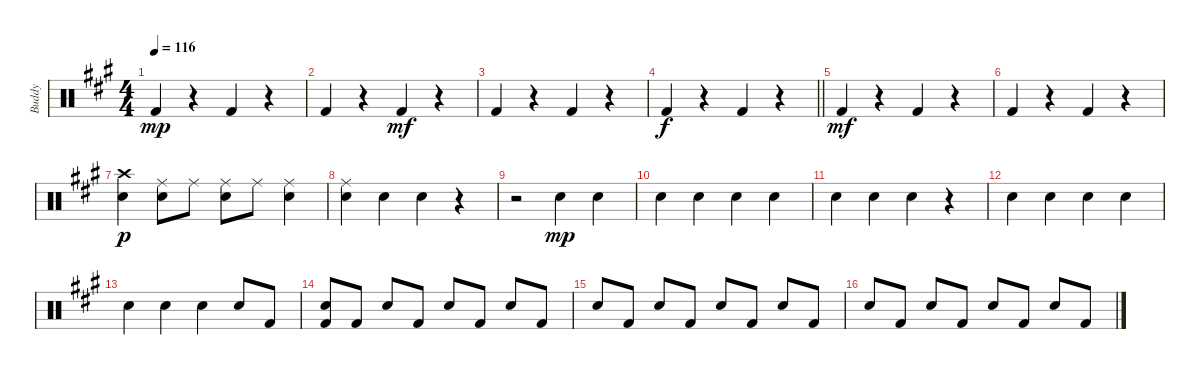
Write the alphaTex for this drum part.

\track ("Buddy" "Buddy") {instrument percussion}
\staff {score}
\articulation defaults
\ts (4 4)
\tempo 116
\clef neutral
\ks a "Kick (hit) 2".4{dy mp}
r.4 "Kick (hit) 2".4 r.4 |
"Kick (hit) 2".4 r.4 "Kick (hit) 2".4{dy mf} r.4 |
"Kick (hit) 2".4 r.4 "Kick (hit) 2".4 r.4 |
\barLineRight lightlight "Kick (hit) 2".4{dy f}
r.4 "Kick (hit) 2".4 r.4 |
"Kick (hit) 2".4{dy mf} r.4 "Kick (hit) 2".4 r.4 |
"Kick (hit) 2".4 r.4 "Kick (hit) 2".4 r.4 |
("Crash high (hit)" "Snare (hit) 2").4{dy p} ("Ride (middle)" "Snare (hit) 2").8 "Ride (middle)".8 ("Ride (middle)" "Snare (hit) 2").8 "Ride (middle)".8 ("Ride (middle)" "Snare (hit) 2").4 |
("Ride (middle)" "Snare (hit) 2").4 "Snare (hit) 2".4 "Snare (hit) 2".4 r.4 |
r.2 "Snare (hit) 2".4{dy mp} "Snare (hit) 2".4 |
"Snare (hit) 2".4 "Snare (hit) 2".4 "Snare (hit) 2".4 "Snare (hit) 2".4 |
"Snare (hit) 2".4 "Snare (hit) 2".4 "Snare (hit) 2".4 r.4 |
"Snare (hit) 2".4 "Snare (hit) 2".4 "Snare (hit) 2".4 "Snare (hit) 2".4 |
"Snare (hit) 2".4 "Snare (hit) 2".4 "Snare (hit) 2".4 "Snare (hit) 2".8 "Kick (hit) 2".8 |
("Snare (hit) 2" "Kick (hit) 2").8 "Kick (hit) 2".8 "Snare (hit) 2".8 "Kick (hit) 2".8 "Snare (hit) 2".8 "Kick (hit) 2".8 "Snare (hit) 2".8 "Kick (hit) 2".8 |
"Snare (hit) 2".8 "Kick (hit) 2".8 "Snare (hit) 2".8 "Kick (hit) 2".8 "Snare (hit) 2".8 "Kick (hit) 2".8 "Snare (hit) 2".8 "Kick (hit) 2".8 |
"Snare (hit) 2".8 "Kick (hit) 2".8 "Snare (hit) 2".8 "Kick (hit) 2".8 "Snare (hit) 2".8 "Kick (hit) 2".8 "Snare (hit) 2".8 "Kick (hit) 2".8
